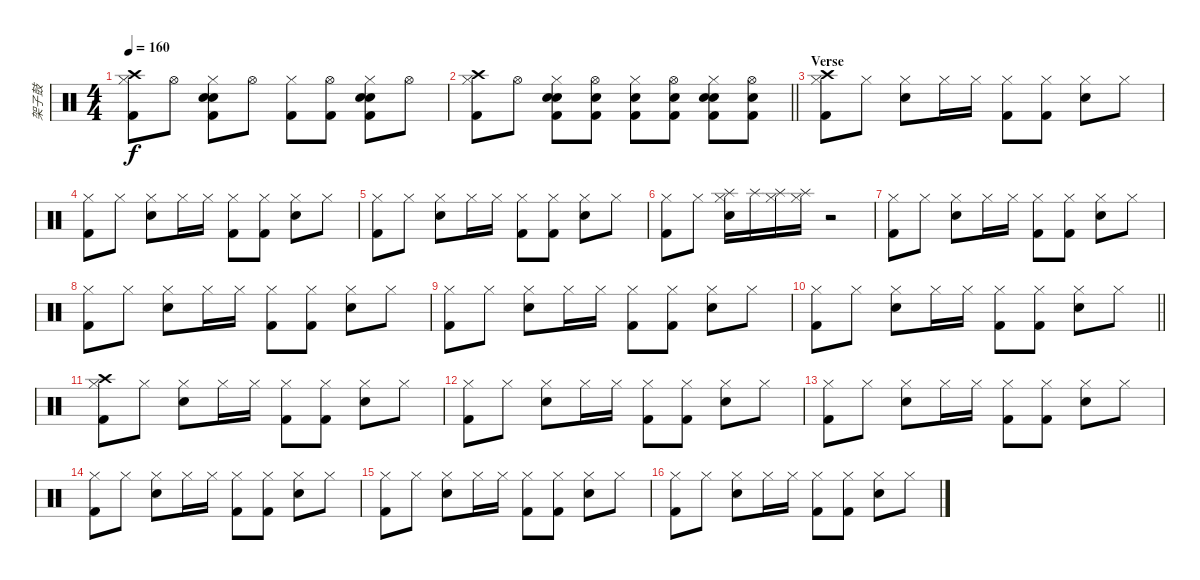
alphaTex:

\track ("架子鼓" "架子鼓") {instrument percussion}
\staff {score}
\articulation defaults
\ts (4 4)
\tempo 160
\clef neutral
\ks c
("Hi-Hat (closed)" "Crash high (hit)" "Kick (hit) 2").8{dy f} "Hi-Hat (open)".8 ("Hi-Hat (closed)" "Electric Snare (hit)" "Hand Clap (hit)" "Kick (hit) 2").8 "Hi-Hat (open)".8 ("Hi-Hat (closed)" "Kick (hit) 2").8 ("Hi-Hat (open)" "Kick (hit) 2").8 ("Hi-Hat (closed)" "Electric Snare (hit)" "Hand Clap (hit)" "Kick (hit) 2").8 "Hi-Hat (open)".8 |
\barLineRight lightlight
("Hi-Hat (closed)" "Crash high (hit)" "Kick (hit) 2").8 "Hi-Hat (open)".8 ("Hi-Hat (closed)" "Electric Snare (hit)" "Hand Clap (hit)" "Kick (hit) 2").8 ("Hi-Hat (open)" "Electric Snare (hit)" "Kick (hit) 2").8 ("Hi-Hat (closed)" "Electric Snare (hit)" "Kick (hit) 2").8 ("Hi-Hat (open)" "Electric Snare (hit)" "Kick (hit) 2").8 ("Hi-Hat (closed)" "Electric Snare (hit)" "Hand Clap (hit)" "Kick (hit) 2").8 ("Hi-Hat (open)" "Electric Snare (hit)" "Kick (hit) 2").8 |
\section ("" "Verse")
("Hi-Hat (closed)" "Crash high (hit)" "Kick (hit) 2").8 "Hi-Hat (closed)".8 ("Hi-Hat (closed)" "Electric Snare (hit)").8 "Hi-Hat (closed)".16 "Hi-Hat (closed)".16 ("Hi-Hat (closed)" "Kick (hit) 2").8 ("Hi-Hat (closed)" "Kick (hit) 2").8 ("Hi-Hat (closed)" "Electric Snare (hit)").8 "Hi-Hat (closed)".8 |
("Hi-Hat (closed)" "Kick (hit) 2").8 "Hi-Hat (closed)".8 ("Hi-Hat (closed)" "Electric Snare (hit)").8 "Hi-Hat (closed)".16 "Hi-Hat (closed)".16 ("Hi-Hat (closed)" "Kick (hit) 2").8 ("Hi-Hat (closed)" "Kick (hit) 2").8 ("Hi-Hat (closed)" "Electric Snare (hit)").8 "Hi-Hat (closed)".8 |
("Hi-Hat (closed)" "Kick (hit) 2").8 "Hi-Hat (closed)".8 ("Hi-Hat (closed)" "Electric Snare (hit)").8 "Hi-Hat (closed)".16 "Hi-Hat (closed)".16 ("Hi-Hat (closed)" "Kick (hit) 2").8 ("Hi-Hat (closed)" "Kick (hit) 2").8 ("Hi-Hat (closed)" "Electric Snare (hit)").8 "Hi-Hat (closed)".8 |
("Hi-Hat (closed)" "Kick (hit) 2").8 "Hi-Hat (closed)".8 ("Hi-Hat (closed)" "Electric Snare (hit)" "Splash (hit)").16 "Splash (hit)".16 ("Hi-Hat (closed)" "Splash (hit)").16 ("Hi-Hat (closed)" "Splash (hit)").16 r.2 |
("Hi-Hat (closed)" "Kick (hit) 2").8 "Hi-Hat (closed)".8 ("Hi-Hat (closed)" "Electric Snare (hit)").8 "Hi-Hat (closed)".16 "Hi-Hat (closed)".16 ("Hi-Hat (closed)" "Kick (hit) 2").8 ("Hi-Hat (closed)" "Kick (hit) 2").8 ("Hi-Hat (closed)" "Electric Snare (hit)").8 "Hi-Hat (closed)".8 |
("Hi-Hat (closed)" "Kick (hit) 2").8 "Hi-Hat (closed)".8 ("Hi-Hat (closed)" "Electric Snare (hit)").8 "Hi-Hat (closed)".16 "Hi-Hat (closed)".16 ("Hi-Hat (closed)" "Kick (hit) 2").8 ("Hi-Hat (closed)" "Kick (hit) 2").8 ("Hi-Hat (closed)" "Electric Snare (hit)").8 "Hi-Hat (closed)".8 |
("Hi-Hat (closed)" "Kick (hit) 2").8 "Hi-Hat (closed)".8 ("Hi-Hat (closed)" "Electric Snare (hit)").8 "Hi-Hat (closed)".16 "Hi-Hat (closed)".16 ("Hi-Hat (closed)" "Kick (hit) 2").8 ("Hi-Hat (closed)" "Kick (hit) 2").8 ("Hi-Hat (closed)" "Electric Snare (hit)").8 "Hi-Hat (closed)".8 |
\barLineRight lightlight
("Hi-Hat (closed)" "Kick (hit) 2").8 "Hi-Hat (closed)".8 ("Hi-Hat (closed)" "Electric Snare (hit)").8 "Hi-Hat (closed)".16 "Hi-Hat (closed)".16 ("Hi-Hat (closed)" "Kick (hit) 2").8 ("Hi-Hat (closed)" "Kick (hit) 2").8 ("Hi-Hat (closed)" "Electric Snare (hit)").8 "Hi-Hat (closed)".8 |
("Hi-Hat (closed)" "Crash high (hit)" "Kick (hit) 2").8 "Hi-Hat (closed)".8 ("Hi-Hat (closed)" "Electric Snare (hit)").8 "Hi-Hat (closed)".16 "Hi-Hat (closed)".16 ("Hi-Hat (closed)" "Kick (hit) 2").8 ("Hi-Hat (closed)" "Kick (hit) 2").8 ("Hi-Hat (closed)" "Electric Snare (hit)").8 "Hi-Hat (closed)".8 |
("Hi-Hat (closed)" "Kick (hit) 2").8 "Hi-Hat (closed)".8 ("Hi-Hat (closed)" "Electric Snare (hit)").8 "Hi-Hat (closed)".16 "Hi-Hat (closed)".16 ("Hi-Hat (closed)" "Kick (hit) 2").8 ("Hi-Hat (closed)" "Kick (hit) 2").8 ("Hi-Hat (closed)" "Electric Snare (hit)").8 "Hi-Hat (closed)".8 |
("Hi-Hat (closed)" "Kick (hit) 2").8 "Hi-Hat (closed)".8 ("Hi-Hat (closed)" "Electric Snare (hit)").8 "Hi-Hat (closed)".16 "Hi-Hat (closed)".16 ("Hi-Hat (closed)" "Kick (hit) 2").8 ("Hi-Hat (closed)" "Kick (hit) 2").8 ("Hi-Hat (closed)" "Electric Snare (hit)").8 "Hi-Hat (closed)".8 |
("Hi-Hat (closed)" "Kick (hit) 2").8 "Hi-Hat (closed)".8 ("Hi-Hat (closed)" "Electric Snare (hit)").8 "Hi-Hat (closed)".16 "Hi-Hat (closed)".16 ("Hi-Hat (closed)" "Kick (hit) 2").8 ("Hi-Hat (closed)" "Kick (hit) 2").8 ("Hi-Hat (closed)" "Electric Snare (hit)").8 "Hi-Hat (closed)".8 |
("Hi-Hat (closed)" "Kick (hit) 2").8 "Hi-Hat (closed)".8 ("Hi-Hat (closed)" "Electric Snare (hit)").8 "Hi-Hat (closed)".16 "Hi-Hat (closed)".16 ("Hi-Hat (closed)" "Kick (hit) 2").8 ("Hi-Hat (closed)" "Kick (hit) 2").8 ("Hi-Hat (closed)" "Electric Snare (hit)").8 "Hi-Hat (closed)".8 |
("Hi-Hat (closed)" "Kick (hit) 2").8 "Hi-Hat (closed)".8 ("Hi-Hat (closed)" "Electric Snare (hit)").8 "Hi-Hat (closed)".16 "Hi-Hat (closed)".16 ("Hi-Hat (closed)" "Kick (hit) 2").8 ("Hi-Hat (closed)" "Kick (hit) 2").8 ("Hi-Hat (closed)" "Electric Snare (hit)").8 "Hi-Hat (closed)".8
